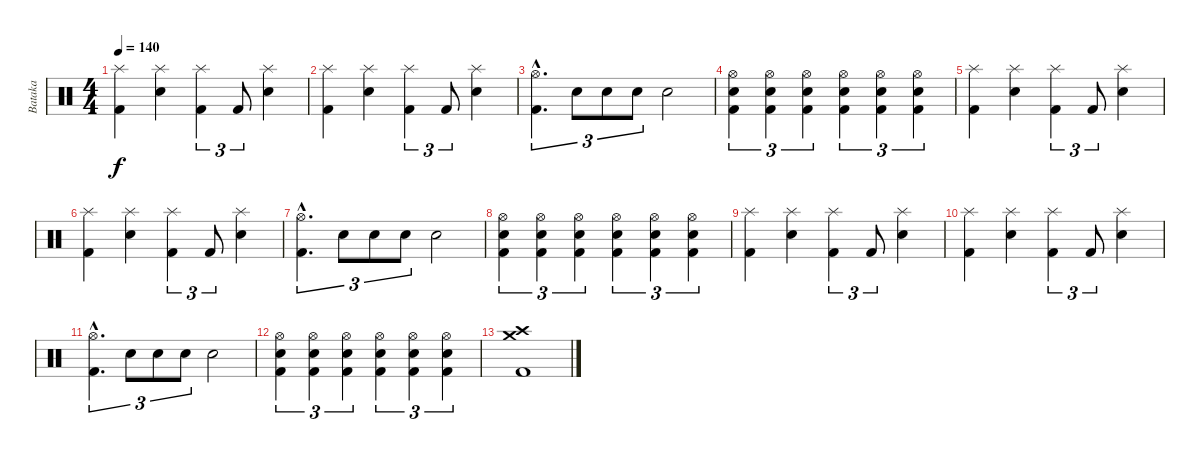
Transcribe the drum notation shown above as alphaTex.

\track ("Bataka" "Bataka") {instrument percussion}
\staff {score}
\articulation defaults
\ts (4 4)
\tempo 140
\clef neutral
\ks c
("Splash (hit)" "Kick (hit) 2").4{dy f} ("Splash (hit)" "Electric Snare (hit)").4 ("Splash (hit)" "Kick (hit) 2").4{tu (3 2)} "Kick (hit) 2".8{tu (3 2)} ("Splash (hit)" "Electric Snare (hit)").4 |
("Splash (hit)" "Kick (hit) 2").4 ("Splash (hit)" "Electric Snare (hit)").4 ("Splash (hit)" "Kick (hit) 2").4{tu (3 2)} "Kick (hit) 2".8{tu (3 2)} ("Splash (hit)" "Electric Snare (hit)").4 |
("Hi-Hat (open)"{hac} "Kick (hit) 2"{hac}).4{d tu (3 2)} "Electric Snare (hit)".8{tu (3 2)} "Electric Snare (hit)".8{tu (3 2)} "Electric Snare (hit)".8{tu (3 2)} "Electric Snare (hit)".2 |
("Hi-Hat (open)" "Electric Snare (hit)" "Kick (hit) 2").4{tu (3 2)} ("Hi-Hat (open)" "Electric Snare (hit)" "Kick (hit) 2").4{tu (3 2)} ("Hi-Hat (open)" "Electric Snare (hit)" "Kick (hit) 2").4{tu (3 2)} ("Hi-Hat (open)" "Electric Snare (hit)" "Kick (hit) 2").4{tu (3 2)} ("Hi-Hat (open)" "Electric Snare (hit)" "Kick (hit) 2").4{tu (3 2)} ("Hi-Hat (open)" "Electric Snare (hit)" "Kick (hit) 2").4{tu (3 2)} |
("Splash (hit)" "Kick (hit) 2").4 ("Splash (hit)" "Electric Snare (hit)").4 ("Splash (hit)" "Kick (hit) 2").4{tu (3 2)} "Kick (hit) 2".8{tu (3 2)} ("Splash (hit)" "Electric Snare (hit)").4 |
("Splash (hit)" "Kick (hit) 2").4 ("Splash (hit)" "Electric Snare (hit)").4 ("Splash (hit)" "Kick (hit) 2").4{tu (3 2)} "Kick (hit) 2".8{tu (3 2)} ("Splash (hit)" "Electric Snare (hit)").4 |
("Hi-Hat (open)"{hac} "Kick (hit) 2"{hac}).4{d tu (3 2)} "Electric Snare (hit)".8{tu (3 2)} "Electric Snare (hit)".8{tu (3 2)} "Electric Snare (hit)".8{tu (3 2)} "Electric Snare (hit)".2 |
("Hi-Hat (open)" "Electric Snare (hit)" "Kick (hit) 2").4{tu (3 2)} ("Hi-Hat (open)" "Electric Snare (hit)" "Kick (hit) 2").4{tu (3 2)} ("Hi-Hat (open)" "Electric Snare (hit)" "Kick (hit) 2").4{tu (3 2)} ("Hi-Hat (open)" "Electric Snare (hit)" "Kick (hit) 2").4{tu (3 2)} ("Hi-Hat (open)" "Electric Snare (hit)" "Kick (hit) 2").4{tu (3 2)} ("Hi-Hat (open)" "Electric Snare (hit)" "Kick (hit) 2").4{tu (3 2)} |
("Splash (hit)" "Kick (hit) 2").4 ("Splash (hit)" "Electric Snare (hit)").4 ("Splash (hit)" "Kick (hit) 2").4{tu (3 2)} "Kick (hit) 2".8{tu (3 2)} ("Splash (hit)" "Electric Snare (hit)").4 |
("Splash (hit)" "Kick (hit) 2").4 ("Splash (hit)" "Electric Snare (hit)").4 ("Splash (hit)" "Kick (hit) 2").4{tu (3 2)} "Kick (hit) 2".8{tu (3 2)} ("Splash (hit)" "Electric Snare (hit)").4 |
("Hi-Hat (open)"{hac} "Kick (hit) 2"{hac}).4{d tu (3 2)} "Electric Snare (hit)".8{tu (3 2)} "Electric Snare (hit)".8{tu (3 2)} "Electric Snare (hit)".8{tu (3 2)} "Electric Snare (hit)".2 |
("Hi-Hat (open)" "Electric Snare (hit)" "Kick (hit) 2").4{tu (3 2)} ("Hi-Hat (open)" "Electric Snare (hit)" "Kick (hit) 2").4{tu (3 2)} ("Hi-Hat (open)" "Electric Snare (hit)" "Kick (hit) 2").4{tu (3 2)} ("Hi-Hat (open)" "Electric Snare (hit)" "Kick (hit) 2").4{tu (3 2)} ("Hi-Hat (open)" "Electric Snare (hit)" "Kick (hit) 2").4{tu (3 2)} ("Hi-Hat (open)" "Electric Snare (hit)" "Kick (hit) 2").4{tu (3 2)} |
("Crash high (hit)" "Crash medium (hit)" "Kick (hit) 2").1
